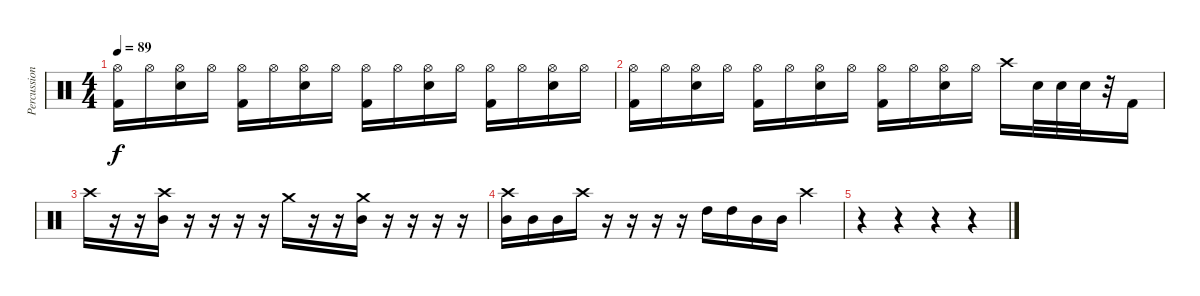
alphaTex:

\track ("Percussion" "Percussion") {instrument percussion}
\staff {score}
\articulation defaults
\ts (4 4)
\tempo 89
\clef neutral
\ks c
("Hi-Hat (open)" "Kick (hit) 2").16{dy f} "Hi-Hat (open)".16 ("Hi-Hat (open)" "Snare (hit) 2").16 "Hi-Hat (open)".16 ("Hi-Hat (open)" "Kick (hit) 2").16 "Hi-Hat (open)".16 ("Hi-Hat (open)" "Snare (hit) 2").16 "Hi-Hat (open)".16 ("Hi-Hat (open)" "Kick (hit) 2").16 "Hi-Hat (open)".16 ("Hi-Hat (open)" "Snare (hit) 2").16 "Hi-Hat (open)".16 ("Hi-Hat (open)" "Kick (hit) 2").16 "Hi-Hat (open)".16 ("Hi-Hat (open)" "Snare (hit) 2").16 "Hi-Hat (open)".16 |
("Hi-Hat (open)" "Kick (hit) 2").16 "Hi-Hat (open)".16 ("Hi-Hat (open)" "Snare (hit) 2").16 "Hi-Hat (open)".16 ("Hi-Hat (open)" "Kick (hit) 2").16 "Hi-Hat (open)".16 ("Hi-Hat (open)" "Snare (hit) 2").16 "Hi-Hat (open)".16 ("Hi-Hat (open)" "Kick (hit) 2").16 "Hi-Hat (open)".16 ("Hi-Hat (open)" "Snare (hit) 2").16 "Hi-Hat (open)".16 "Crash high (hit)".16 "Snare (hit) 2".32 "Snare (hit) 2".32 "Snare (hit) 2".32 r.32 "Kick (hit) 2".16 |
"Crash high (hit)".16 r.16 r.16 ("Crash high (hit)" "Mid Tom (hit)").16 r.16 r.16 r.16 r.16 "Crash medium (hit)".16 r.16 r.16 ("Crash medium (hit)" "Mid Tom (hit)").16 r.16 r.16 r.16 r.16 |
("Crash high (hit)" "Mid Tom (hit)").16 "Mid Tom (hit)".16 "Mid Tom (hit)".16 "Crash high (hit)".16 r.16 r.16 r.16 r.16 "High Tom (hit)".16 "High Tom (hit)".16 "Mid Tom (hit)".16 "Mid Tom (hit)".16 "Crash high (hit)".4 |
r.4 r.4 r.4 r.4
